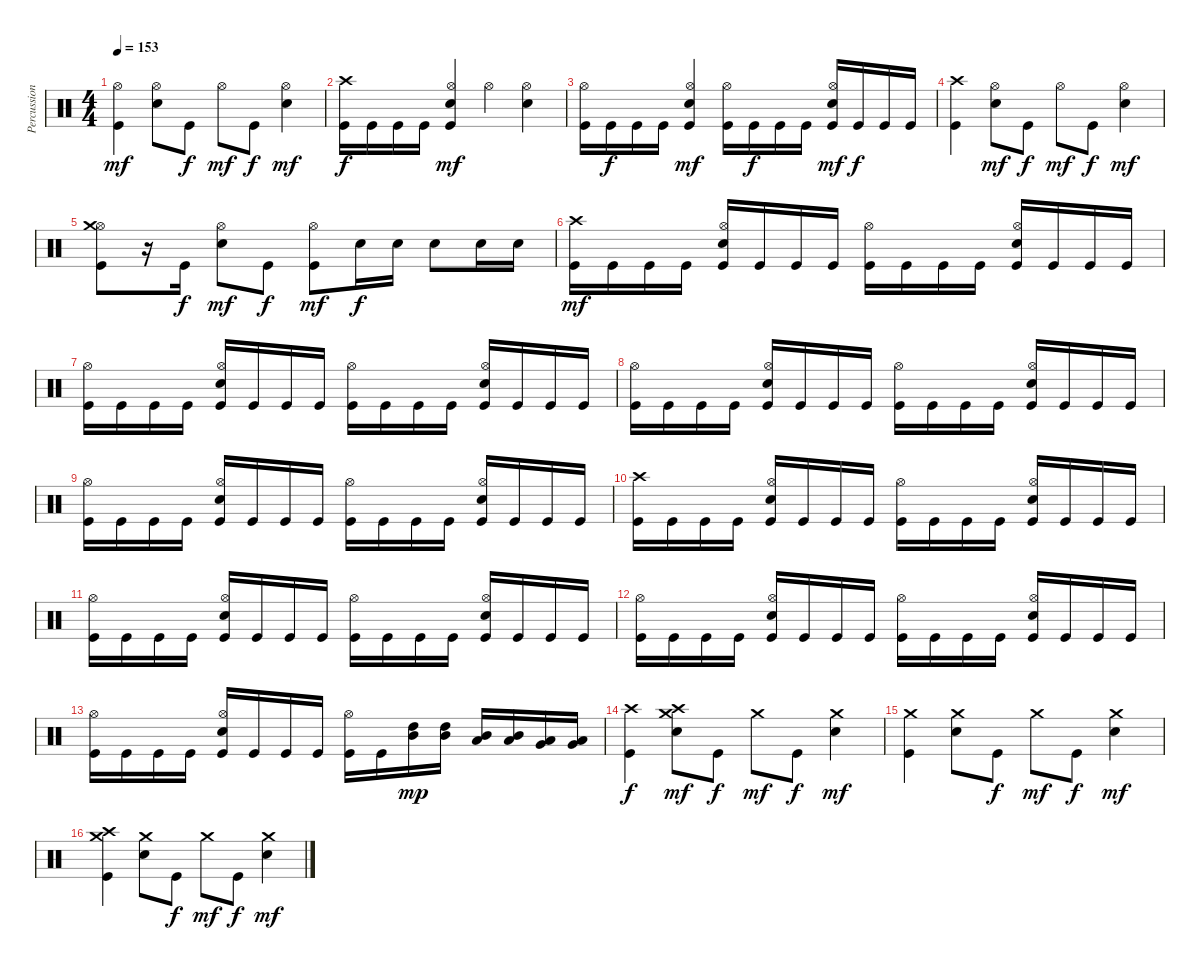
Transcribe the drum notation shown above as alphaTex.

\track ("Percussions" "Percussion") {instrument percussion}
\staff {score}
\articulation defaults
\ts (4 4)
\tempo 153
\clef neutral
\ks c
("Kick (hit)" "Hi-Hat (open)").4{dy mf} ("Electric Snare (hit)" "Hi-Hat (open)").8 "Kick (hit)".8{dy f} "Hi-Hat (open)".8{dy mf} "Kick (hit)".8{dy f} ("Electric Snare (hit)" "Hi-Hat (open)").4{dy mf} |
("Kick (hit)" "Crash high (hit)").16{dy f} "Kick (hit)".16 "Kick (hit)".16 "Kick (hit)".16 ("Kick (hit)" "Electric Snare (hit)" "Hi-Hat (open)").4{dy mf} "Hi-Hat (open)".4 ("Electric Snare (hit)" "Hi-Hat (open)").4 |
("Kick (hit)" "Hi-Hat (open)").16 "Kick (hit)".16{dy f} "Kick (hit)".16 "Kick (hit)".16 ("Kick (hit)" "Electric Snare (hit)" "Hi-Hat (open)").4{dy mf} ("Kick (hit)" "Hi-Hat (open)").16 "Kick (hit)".16{dy f} "Kick (hit)".16 "Kick (hit)".16 ("Kick (hit)" "Electric Snare (hit)" "Hi-Hat (open)").16{dy mf} "Kick (hit)".16{dy f} "Kick (hit)".16 "Kick (hit)".16 |
("Kick (hit)" "Crash high (hit)").4 ("Electric Snare (hit)" "Hi-Hat (open)").8{dy mf} "Kick (hit)".8{dy f} "Hi-Hat (open)".8{dy mf} "Kick (hit)".8{dy f} ("Electric Snare (hit)" "Hi-Hat (open)").4{dy mf} |
("Kick (hit)" "Hi-Hat (open)" "Crash medium (hit)").8 r.16 "Kick (hit)".16{dy f} ("Electric Snare (hit)" "Hi-Hat (open)").8{dy mf} "Kick (hit)".8{dy f} ("Kick (hit)" "Hi-Hat (open)").8{dy mf} "Electric Snare (hit)".16{dy f} "Electric Snare (hit)".16 "Electric Snare (hit)".8 "Electric Snare (hit)".16 "Electric Snare (hit)".16 |
("Kick (hit)" "Crash high (hit)").16{dy mf} "Kick (hit)".16 "Kick (hit)".16 "Kick (hit)".16 ("Kick (hit)" "Electric Snare (hit)" "Hi-Hat (open)").16 "Kick (hit)".16 "Kick (hit)".16 "Kick (hit)".16 ("Kick (hit)" "Hi-Hat (open)").16 "Kick (hit)".16 "Kick (hit)".16 "Kick (hit)".16 ("Kick (hit)" "Electric Snare (hit)" "Hi-Hat (open)").16 "Kick (hit)".16 "Kick (hit)".16 "Kick (hit)".16 |
("Kick (hit)" "Hi-Hat (open)").16 "Kick (hit)".16 "Kick (hit)".16 "Kick (hit)".16 ("Kick (hit)" "Electric Snare (hit)" "Hi-Hat (open)").16 "Kick (hit)".16 "Kick (hit)".16 "Kick (hit)".16 ("Kick (hit)" "Hi-Hat (open)").16 "Kick (hit)".16 "Kick (hit)".16 "Kick (hit)".16 ("Kick (hit)" "Electric Snare (hit)" "Hi-Hat (open)").16 "Kick (hit)".16 "Kick (hit)".16 "Kick (hit)".16 |
("Kick (hit)" "Hi-Hat (open)").16 "Kick (hit)".16 "Kick (hit)".16 "Kick (hit)".16 ("Kick (hit)" "Electric Snare (hit)" "Hi-Hat (open)").16 "Kick (hit)".16 "Kick (hit)".16 "Kick (hit)".16 ("Kick (hit)" "Hi-Hat (open)").16 "Kick (hit)".16 "Kick (hit)".16 "Kick (hit)".16 ("Kick (hit)" "Electric Snare (hit)" "Hi-Hat (open)").16 "Kick (hit)".16 "Kick (hit)".16 "Kick (hit)".16 |
("Kick (hit)" "Hi-Hat (open)").16 "Kick (hit)".16 "Kick (hit)".16 "Kick (hit)".16 ("Kick (hit)" "Electric Snare (hit)" "Hi-Hat (open)").16 "Kick (hit)".16 "Kick (hit)".16 "Kick (hit)".16 ("Kick (hit)" "Hi-Hat (open)").16 "Kick (hit)".16 "Kick (hit)".16 "Kick (hit)".16 ("Kick (hit)" "Electric Snare (hit)" "Hi-Hat (open)").16 "Kick (hit)".16 "Kick (hit)".16 "Kick (hit)".16 |
("Kick (hit)" "Crash high (hit)").16 "Kick (hit)".16 "Kick (hit)".16 "Kick (hit)".16 ("Kick (hit)" "Electric Snare (hit)" "Hi-Hat (open)").16 "Kick (hit)".16 "Kick (hit)".16 "Kick (hit)".16 ("Kick (hit)" "Hi-Hat (open)").16 "Kick (hit)".16 "Kick (hit)".16 "Kick (hit)".16 ("Kick (hit)" "Electric Snare (hit)" "Hi-Hat (open)").16 "Kick (hit)".16 "Kick (hit)".16 "Kick (hit)".16 |
("Kick (hit)" "Hi-Hat (open)").16 "Kick (hit)".16 "Kick (hit)".16 "Kick (hit)".16 ("Kick (hit)" "Electric Snare (hit)" "Hi-Hat (open)").16 "Kick (hit)".16 "Kick (hit)".16 "Kick (hit)".16 ("Kick (hit)" "Hi-Hat (open)").16 "Kick (hit)".16 "Kick (hit)".16 "Kick (hit)".16 ("Kick (hit)" "Electric Snare (hit)" "Hi-Hat (open)").16 "Kick (hit)".16 "Kick (hit)".16 "Kick (hit)".16 |
("Kick (hit)" "Hi-Hat (open)").16 "Kick (hit)".16 "Kick (hit)".16 "Kick (hit)".16 ("Kick (hit)" "Electric Snare (hit)" "Hi-Hat (open)").16 "Kick (hit)".16 "Kick (hit)".16 "Kick (hit)".16 ("Kick (hit)" "Hi-Hat (open)").16 "Kick (hit)".16 "Kick (hit)".16 "Kick (hit)".16 ("Kick (hit)" "Electric Snare (hit)" "Hi-Hat (open)").16 "Kick (hit)".16 "Kick (hit)".16 "Kick (hit)".16 |
("Kick (hit)" "Hi-Hat (open)").16 "Kick (hit)".16 "Kick (hit)".16 "Kick (hit)".16 ("Kick (hit)" "Electric Snare (hit)" "Hi-Hat (open)").16 "Kick (hit)".16 "Kick (hit)".16 "Kick (hit)".16 ("Kick (hit)" "Hi-Hat (open)").16 "Kick (hit)".16 ("High Tom (hit)" "Mid Tom (hit)").16{dy mp} ("High Tom (hit)" "Mid Tom (hit)").16 ("Mid Tom (hit)" "Low Tom (hit)").16 ("Mid Tom (hit)" "Low Tom (hit)").16 ("Low Tom (hit)" "Very Low Tom (hit)").16 ("Low Tom (hit)" "Very Low Tom (hit)").16 |
("Kick (hit)" "Crash high (hit)").4{dy f} ("Electric Snare (hit)" "Crash medium (hit)" "Crash high (hit)").8{dy mf} "Kick (hit)".8{dy f} "Crash medium (hit)".8{dy mf} "Kick (hit)".8{dy f} ("Electric Snare (hit)" "Crash medium (hit)").4{dy mf} |
("Kick (hit)" "Crash medium (hit)").4 ("Electric Snare (hit)" "Crash medium (hit)").8 "Kick (hit)".8{dy f} "Crash medium (hit)".8{dy mf} "Kick (hit)".8{dy f} ("Electric Snare (hit)" "Crash medium (hit)").4{dy mf} |
("Kick (hit)" "Crash medium (hit)" "Crash high (hit)").4 ("Electric Snare (hit)" "Crash medium (hit)").8 "Kick (hit)".8{dy f} "Crash medium (hit)".8{dy mf} "Kick (hit)".8{dy f} ("Electric Snare (hit)" "Crash medium (hit)").4{dy mf}
